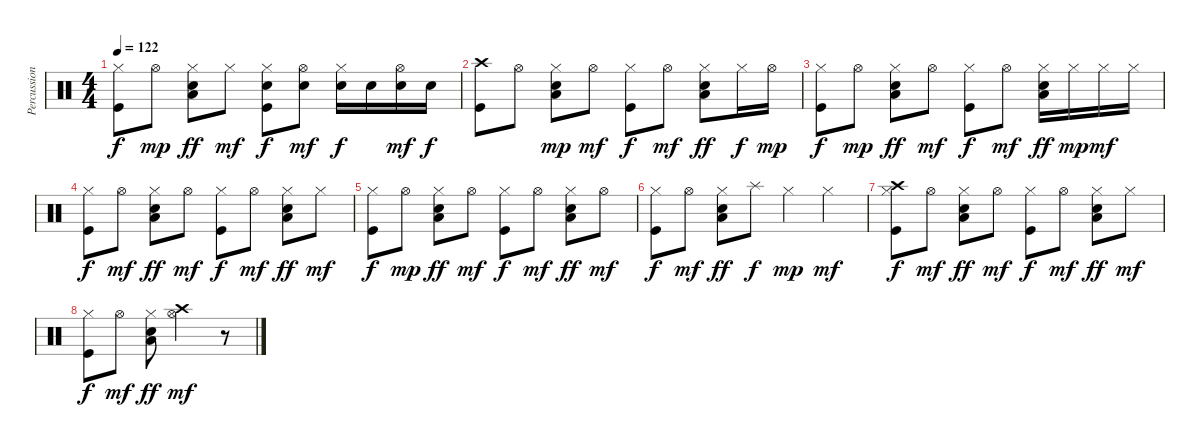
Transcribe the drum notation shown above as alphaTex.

\track ("Percussion" "Percussion") {instrument percussion}
\staff {score}
\articulation defaults
\ts (4 4)
\tempo 122
\clef neutral
\ks c
("Hi-Hat (closed)" "Kick (hit)").8{dy f} "Hi-Hat (open)".8{dy mp} ("Low Floor Tom (hit)" "Hi-Hat (closed)" "Snare (hit) 2").8{dy ff} "Hi-Hat (closed)".8{dy mf} ("Hi-Hat (closed)" "Snare (hit) 2" "Kick (hit)").8{dy f} ("Hi-Hat (open)" "Snare (hit) 2").8{dy mf} ("Hi-Hat (closed)" "Snare (hit) 2").16{dy f} "Snare (hit) 2".16 ("Hi-Hat (open)" "Snare (hit) 2").16{dy mf} "Snare (hit) 2".16{dy f} |
("Crash high (hit)" "Kick (hit)").8 "Hi-Hat (open)".8 ("Low Floor Tom (hit)" "Hi-Hat (closed)" "Snare (hit) 2").8{dy mp} "Hi-Hat (open)".8{dy mf} ("Hi-Hat (closed)" "Kick (hit)").8{dy f} "Hi-Hat (open)".8{dy mf} ("Low Floor Tom (hit)" "Hi-Hat (closed)" "Snare (hit) 2").8{dy ff} "Hi-Hat (closed)".16{dy f} "Hi-Hat (open)".16{dy mp} |
("Hi-Hat (closed)" "Kick (hit)").8{dy f} "Hi-Hat (open)".8{dy mp} ("Low Floor Tom (hit)" "Hi-Hat (closed)" "Snare (hit) 2").8{dy ff} "Hi-Hat (open)".8{dy mf} ("Hi-Hat (closed)" "Kick (hit)").8{dy f} "Hi-Hat (open)".8{dy mf} ("Low Floor Tom (hit)" "Hi-Hat (closed)" "Snare (hit) 2").16{dy ff} "Hi-Hat (closed)".16{dy mp} "Hi-Hat (closed)".16{dy mf} "Hi-Hat (closed)".16 |
("Hi-Hat (closed)" "Kick (hit)").8{dy f} "Hi-Hat (open)".8{dy mf} ("Low Floor Tom (hit)" "Hi-Hat (closed)" "Snare (hit) 2").8{dy ff} "Hi-Hat (open)".8{dy mf} ("Hi-Hat (closed)" "Kick (hit)").8{dy f} "Hi-Hat (open)".8{dy mf} ("Low Floor Tom (hit)" "Hi-Hat (closed)" "Snare (hit) 2").8{dy ff} "Hi-Hat (closed)".8{dy mf} |
("Hi-Hat (closed)" "Kick (hit)").8{dy f} "Hi-Hat (open)".8{dy mp} ("Low Floor Tom (hit)" "Hi-Hat (closed)" "Snare (hit) 2").8{dy ff} "Hi-Hat (open)".8{dy mf} ("Hi-Hat (closed)" "Kick (hit)").8{dy f} "Hi-Hat (open)".8{dy mf} ("Low Floor Tom (hit)" "Hi-Hat (closed)" "Snare (hit) 2").8{dy ff} "Hi-Hat (open)".8{dy mf} |
("Hi-Hat (closed)" "Kick (hit)").8{dy f} "Hi-Hat (open)".8{dy mf} ("Low Floor Tom (hit)" "Hi-Hat (closed)" "Snare (hit) 2").8{dy ff} "Splash (hit)".8{dy f} "Hi-Hat (closed)".4{dy mp} "Hi-Hat (closed)".4{dy mf} |
("Crash high (hit)" "Hi-Hat (closed)" "Kick (hit)").8{dy f} "Hi-Hat (open)".8{dy mf} ("Low Floor Tom (hit)" "Hi-Hat (closed)" "Snare (hit) 2").8{dy ff} "Hi-Hat (open)".8{dy mf} ("Hi-Hat (closed)" "Kick (hit)").8{dy f} "Hi-Hat (open)".8{dy mf} ("Low Floor Tom (hit)" "Hi-Hat (closed)" "Snare (hit) 2").8{dy ff} "Hi-Hat (closed)".8{dy mf} |
("Hi-Hat (closed)" "Kick (hit)").8{dy f} "Hi-Hat (open)".8{dy mf} ("Low Floor Tom (hit)" "Hi-Hat (closed)" "Snare (hit) 2").8{dy ff} ("Crash high (hit)" "Hi-Hat (open)").2{dy mf} r.8
